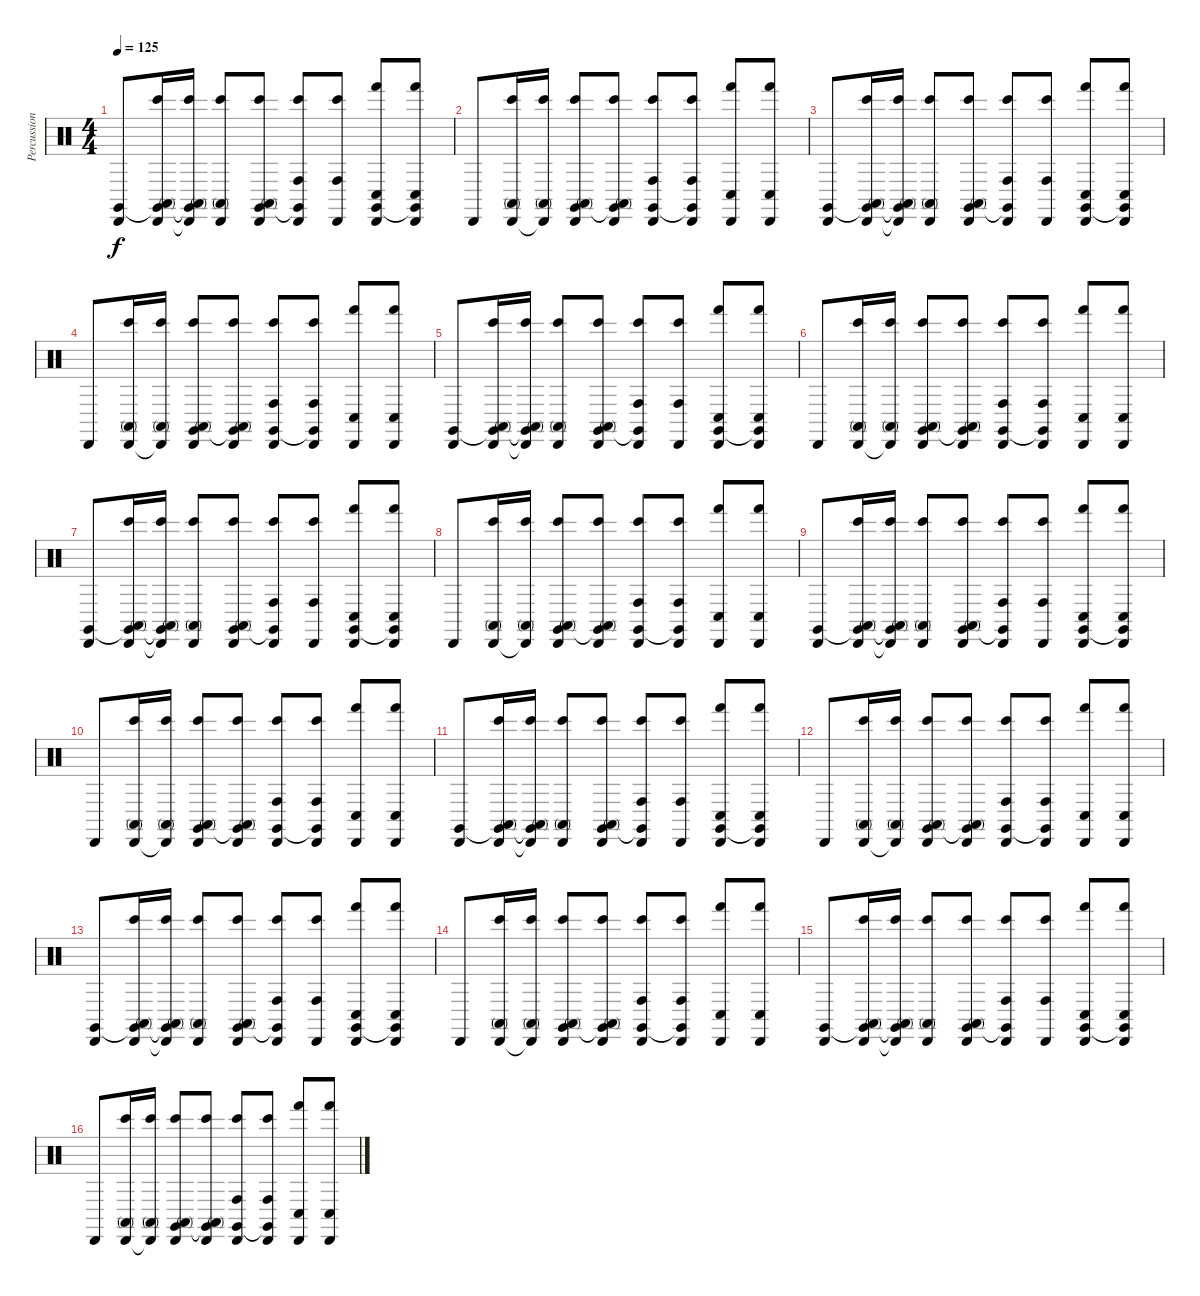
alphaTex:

\track ("Percussion" "Percussion") {instrument percussion}
\staff {score}
\articulation defaults
\ts (4 4)
\tempo 125
\clef neutral
\ks c
("Claves (hit)" "Cabasa (hit)").8{dy f} ("Claves (hit)"{t} "Bongo High (hit)" "Conga high (mute)" "Cabasa (hit)").16 ("Claves (hit)"{t} "Bongo High (hit)" "Conga high (mute)" "Cabasa (hit)"{t}).16 ("Bongo High (hit)" "Conga high (mute)" "Cabasa (hit)").8 ("Claves (hit)" "Bongo High (hit)" "Conga high (mute)" "Cabasa (hit)").8 ("Claves (hit)"{t} "Bongo High (hit)" "Conga high (hit)" "Cabasa (hit)").8 ("Bongo High (hit)" "Conga high (hit)" "Cabasa (hit)").8 ("Claves (hit)" "Hand (hit)" "Conga low (hit)" "Cabasa (hit)").8 ("Claves (hit)"{t} "Hand (hit)" "Conga low (hit)" "Cabasa (hit)").8 |
"Cabasa (hit)".8 ("Bongo High (hit)" "Conga high (mute)" "Cabasa (hit)").16 ("Bongo High (hit)" "Conga high (mute)" "Cabasa (hit)"{t}).16 ("Claves (hit)" "Bongo High (hit)" "Conga high (mute)" "Cabasa (hit)").8 ("Claves (hit)"{t} "Bongo High (hit)" "Conga high (mute)" "Cabasa (hit)").8 ("Claves (hit)" "Bongo High (hit)" "Conga high (hit)" "Cabasa (hit)").8 ("Claves (hit)"{t} "Bongo High (hit)" "Conga high (hit)" "Cabasa (hit)").8 ("Hand (hit)" "Conga low (hit)" "Cabasa (hit)").8 ("Hand (hit)" "Conga low (hit)" "Cabasa (hit)").8 |
("Claves (hit)" "Cabasa (hit)").8 ("Claves (hit)"{t} "Bongo High (hit)" "Conga high (mute)" "Cabasa (hit)").16 ("Claves (hit)"{t} "Bongo High (hit)" "Conga high (mute)" "Cabasa (hit)"{t}).16 ("Bongo High (hit)" "Conga high (mute)" "Cabasa (hit)").8 ("Claves (hit)" "Bongo High (hit)" "Conga high (mute)" "Cabasa (hit)").8 ("Claves (hit)"{t} "Bongo High (hit)" "Conga high (hit)" "Cabasa (hit)").8 ("Bongo High (hit)" "Conga high (hit)" "Cabasa (hit)").8 ("Claves (hit)" "Hand (hit)" "Conga low (hit)" "Cabasa (hit)").8 ("Claves (hit)"{t} "Hand (hit)" "Conga low (hit)" "Cabasa (hit)").8 |
"Cabasa (hit)".8 ("Bongo High (hit)" "Conga high (mute)" "Cabasa (hit)").16 ("Bongo High (hit)" "Conga high (mute)" "Cabasa (hit)"{t}).16 ("Claves (hit)" "Bongo High (hit)" "Conga high (mute)" "Cabasa (hit)").8 ("Claves (hit)"{t} "Bongo High (hit)" "Conga high (mute)" "Cabasa (hit)").8 ("Claves (hit)" "Bongo High (hit)" "Conga high (hit)" "Cabasa (hit)").8 ("Claves (hit)"{t} "Bongo High (hit)" "Conga high (hit)" "Cabasa (hit)").8 ("Hand (hit)" "Conga low (hit)" "Cabasa (hit)").8 ("Hand (hit)" "Conga low (hit)" "Cabasa (hit)").8 |
("Claves (hit)" "Cabasa (hit)").8 ("Claves (hit)"{t} "Bongo High (hit)" "Conga high (mute)" "Cabasa (hit)").16 ("Claves (hit)"{t} "Bongo High (hit)" "Conga high (mute)" "Cabasa (hit)"{t}).16 ("Bongo High (hit)" "Conga high (mute)" "Cabasa (hit)").8 ("Claves (hit)" "Bongo High (hit)" "Conga high (mute)" "Cabasa (hit)").8 ("Claves (hit)"{t} "Bongo High (hit)" "Conga high (hit)" "Cabasa (hit)").8 ("Bongo High (hit)" "Conga high (hit)" "Cabasa (hit)").8 ("Claves (hit)" "Hand (hit)" "Conga low (hit)" "Cabasa (hit)").8 ("Claves (hit)"{t} "Hand (hit)" "Conga low (hit)" "Cabasa (hit)").8 |
"Cabasa (hit)".8 ("Bongo High (hit)" "Conga high (mute)" "Cabasa (hit)").16 ("Bongo High (hit)" "Conga high (mute)" "Cabasa (hit)"{t}).16 ("Claves (hit)" "Bongo High (hit)" "Conga high (mute)" "Cabasa (hit)").8 ("Claves (hit)"{t} "Bongo High (hit)" "Conga high (mute)" "Cabasa (hit)").8 ("Claves (hit)" "Bongo High (hit)" "Conga high (hit)" "Cabasa (hit)").8 ("Claves (hit)"{t} "Bongo High (hit)" "Conga high (hit)" "Cabasa (hit)").8 ("Hand (hit)" "Conga low (hit)" "Cabasa (hit)").8 ("Hand (hit)" "Conga low (hit)" "Cabasa (hit)").8 |
("Claves (hit)" "Cabasa (hit)").8 ("Claves (hit)"{t} "Bongo High (hit)" "Conga high (mute)" "Cabasa (hit)").16 ("Claves (hit)"{t} "Bongo High (hit)" "Conga high (mute)" "Cabasa (hit)"{t}).16 ("Bongo High (hit)" "Conga high (mute)" "Cabasa (hit)").8 ("Claves (hit)" "Bongo High (hit)" "Conga high (mute)" "Cabasa (hit)").8 ("Claves (hit)"{t} "Bongo High (hit)" "Conga high (hit)" "Cabasa (hit)").8 ("Bongo High (hit)" "Conga high (hit)" "Cabasa (hit)").8 ("Claves (hit)" "Hand (hit)" "Conga low (hit)" "Cabasa (hit)").8 ("Claves (hit)"{t} "Hand (hit)" "Conga low (hit)" "Cabasa (hit)").8 |
"Cabasa (hit)".8 ("Bongo High (hit)" "Conga high (mute)" "Cabasa (hit)").16 ("Bongo High (hit)" "Conga high (mute)" "Cabasa (hit)"{t}).16 ("Claves (hit)" "Bongo High (hit)" "Conga high (mute)" "Cabasa (hit)").8 ("Claves (hit)"{t} "Bongo High (hit)" "Conga high (mute)" "Cabasa (hit)").8 ("Claves (hit)" "Bongo High (hit)" "Conga high (hit)" "Cabasa (hit)").8 ("Claves (hit)"{t} "Bongo High (hit)" "Conga high (hit)" "Cabasa (hit)").8 ("Hand (hit)" "Conga low (hit)" "Cabasa (hit)").8 ("Hand (hit)" "Conga low (hit)" "Cabasa (hit)").8 |
("Claves (hit)" "Cabasa (hit)").8 ("Claves (hit)"{t} "Bongo High (hit)" "Conga high (mute)" "Cabasa (hit)").16 ("Claves (hit)"{t} "Bongo High (hit)" "Conga high (mute)" "Cabasa (hit)"{t}).16 ("Bongo High (hit)" "Conga high (mute)" "Cabasa (hit)").8 ("Claves (hit)" "Bongo High (hit)" "Conga high (mute)" "Cabasa (hit)").8 ("Claves (hit)"{t} "Bongo High (hit)" "Conga high (hit)" "Cabasa (hit)").8 ("Bongo High (hit)" "Conga high (hit)" "Cabasa (hit)").8 ("Claves (hit)" "Hand (hit)" "Conga low (hit)" "Cabasa (hit)").8 ("Claves (hit)"{t} "Hand (hit)" "Conga low (hit)" "Cabasa (hit)").8 |
"Cabasa (hit)".8 ("Bongo High (hit)" "Conga high (mute)" "Cabasa (hit)").16 ("Bongo High (hit)" "Conga high (mute)" "Cabasa (hit)"{t}).16 ("Claves (hit)" "Bongo High (hit)" "Conga high (mute)" "Cabasa (hit)").8 ("Claves (hit)"{t} "Bongo High (hit)" "Conga high (mute)" "Cabasa (hit)").8 ("Claves (hit)" "Bongo High (hit)" "Conga high (hit)" "Cabasa (hit)").8 ("Claves (hit)"{t} "Bongo High (hit)" "Conga high (hit)" "Cabasa (hit)").8 ("Hand (hit)" "Conga low (hit)" "Cabasa (hit)").8 ("Hand (hit)" "Conga low (hit)" "Cabasa (hit)").8 |
("Claves (hit)" "Cabasa (hit)").8 ("Claves (hit)"{t} "Bongo High (hit)" "Conga high (mute)" "Cabasa (hit)").16 ("Claves (hit)"{t} "Bongo High (hit)" "Conga high (mute)" "Cabasa (hit)"{t}).16 ("Bongo High (hit)" "Conga high (mute)" "Cabasa (hit)").8 ("Claves (hit)" "Bongo High (hit)" "Conga high (mute)" "Cabasa (hit)").8 ("Claves (hit)"{t} "Bongo High (hit)" "Conga high (hit)" "Cabasa (hit)").8 ("Bongo High (hit)" "Conga high (hit)" "Cabasa (hit)").8 ("Claves (hit)" "Hand (hit)" "Conga low (hit)" "Cabasa (hit)").8 ("Claves (hit)"{t} "Hand (hit)" "Conga low (hit)" "Cabasa (hit)").8 |
"Cabasa (hit)".8 ("Bongo High (hit)" "Conga high (mute)" "Cabasa (hit)").16 ("Bongo High (hit)" "Conga high (mute)" "Cabasa (hit)"{t}).16 ("Claves (hit)" "Bongo High (hit)" "Conga high (mute)" "Cabasa (hit)").8 ("Claves (hit)"{t} "Bongo High (hit)" "Conga high (mute)" "Cabasa (hit)").8 ("Claves (hit)" "Bongo High (hit)" "Conga high (hit)" "Cabasa (hit)").8 ("Claves (hit)"{t} "Bongo High (hit)" "Conga high (hit)" "Cabasa (hit)").8 ("Hand (hit)" "Conga low (hit)" "Cabasa (hit)").8 ("Hand (hit)" "Conga low (hit)" "Cabasa (hit)").8 |
("Claves (hit)" "Cabasa (hit)").8 ("Claves (hit)"{t} "Bongo High (hit)" "Conga high (mute)" "Cabasa (hit)").16 ("Claves (hit)"{t} "Bongo High (hit)" "Conga high (mute)" "Cabasa (hit)"{t}).16 ("Bongo High (hit)" "Conga high (mute)" "Cabasa (hit)").8 ("Claves (hit)" "Bongo High (hit)" "Conga high (mute)" "Cabasa (hit)").8 ("Claves (hit)"{t} "Bongo High (hit)" "Conga high (hit)" "Cabasa (hit)").8 ("Bongo High (hit)" "Conga high (hit)" "Cabasa (hit)").8 ("Claves (hit)" "Hand (hit)" "Conga low (hit)" "Cabasa (hit)").8 ("Claves (hit)"{t} "Hand (hit)" "Conga low (hit)" "Cabasa (hit)").8 |
"Cabasa (hit)".8 ("Bongo High (hit)" "Conga high (mute)" "Cabasa (hit)").16 ("Bongo High (hit)" "Conga high (mute)" "Cabasa (hit)"{t}).16 ("Claves (hit)" "Bongo High (hit)" "Conga high (mute)" "Cabasa (hit)").8 ("Claves (hit)"{t} "Bongo High (hit)" "Conga high (mute)" "Cabasa (hit)").8 ("Claves (hit)" "Bongo High (hit)" "Conga high (hit)" "Cabasa (hit)").8 ("Claves (hit)"{t} "Bongo High (hit)" "Conga high (hit)" "Cabasa (hit)").8 ("Hand (hit)" "Conga low (hit)" "Cabasa (hit)").8 ("Hand (hit)" "Conga low (hit)" "Cabasa (hit)").8 |
("Claves (hit)" "Cabasa (hit)").8 ("Claves (hit)"{t} "Bongo High (hit)" "Conga high (mute)" "Cabasa (hit)").16 ("Claves (hit)"{t} "Bongo High (hit)" "Conga high (mute)" "Cabasa (hit)"{t}).16 ("Bongo High (hit)" "Conga high (mute)" "Cabasa (hit)").8 ("Claves (hit)" "Bongo High (hit)" "Conga high (mute)" "Cabasa (hit)").8 ("Claves (hit)"{t} "Bongo High (hit)" "Conga high (hit)" "Cabasa (hit)").8 ("Bongo High (hit)" "Conga high (hit)" "Cabasa (hit)").8 ("Claves (hit)" "Hand (hit)" "Conga low (hit)" "Cabasa (hit)").8 ("Claves (hit)"{t} "Hand (hit)" "Conga low (hit)" "Cabasa (hit)").8 |
"Cabasa (hit)".8 ("Bongo High (hit)" "Conga high (mute)" "Cabasa (hit)").16 ("Bongo High (hit)" "Conga high (mute)" "Cabasa (hit)"{t}).16 ("Claves (hit)" "Bongo High (hit)" "Conga high (mute)" "Cabasa (hit)").8 ("Claves (hit)"{t} "Bongo High (hit)" "Conga high (mute)" "Cabasa (hit)").8 ("Claves (hit)" "Bongo High (hit)" "Conga high (hit)" "Cabasa (hit)").8 ("Claves (hit)"{t} "Bongo High (hit)" "Conga high (hit)" "Cabasa (hit)").8 ("Hand (hit)" "Conga low (hit)" "Cabasa (hit)").8 ("Hand (hit)" "Conga low (hit)" "Cabasa (hit)").8
